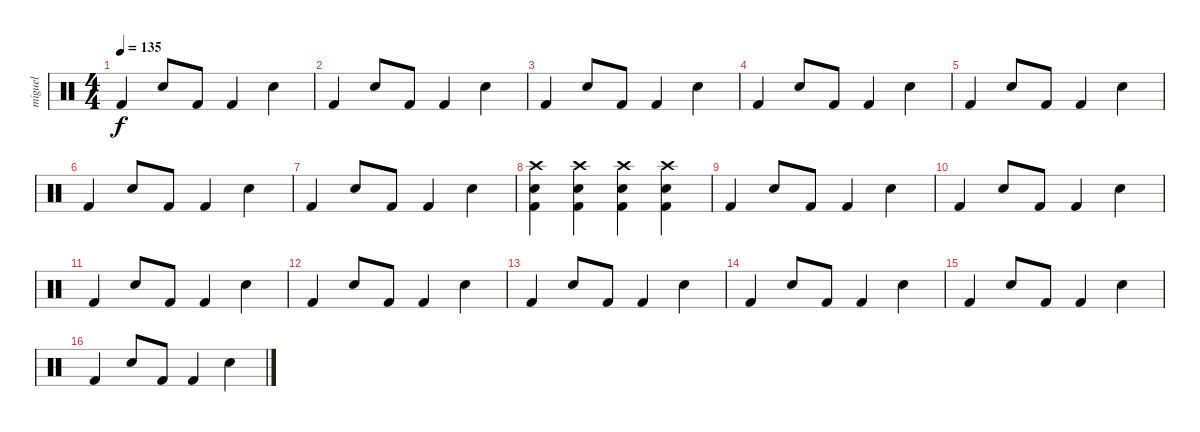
\track ("miguel" "miguel") {instrument percussion}
\staff {score}
\articulation defaults
\ts (4 4)
\tempo 135
\clef neutral
\ks c "Kick (hit) 2".4{dy f} "Snare (hit) 2".8 "Kick (hit) 2".8 "Kick (hit) 2".4 "Snare (hit) 2".4
|
"Kick (hit) 2".4 "Snare (hit) 2".8 "Kick (hit) 2".8 "Kick (hit) 2".4 "Snare (hit) 2".4 |
"Kick (hit) 2".4 "Snare (hit) 2".8 "Kick (hit) 2".8 "Kick (hit) 2".4 "Snare (hit) 2".4 |
"Kick (hit) 2".4 "Snare (hit) 2".8 "Kick (hit) 2".8 "Kick (hit) 2".4 "Snare (hit) 2".4 |
"Kick (hit) 2".4 "Snare (hit) 2".8 "Kick (hit) 2".8 "Kick (hit) 2".4 "Snare (hit) 2".4 |
"Kick (hit) 2".4 "Snare (hit) 2".8 "Kick (hit) 2".8 "Kick (hit) 2".4 "Snare (hit) 2".4 |
"Kick (hit) 2".4 "Snare (hit) 2".8 "Kick (hit) 2".8 "Kick (hit) 2".4 "Snare (hit) 2".4 |
("Kick (hit) 2" "Crash high (hit)" "Snare (hit) 2").4 ("Kick (hit) 2" "Crash high (hit)" "Snare (hit) 2").4 ("Kick (hit) 2" "Crash high (hit)" "Snare (hit) 2").4 ("Kick (hit) 2" "Crash high (hit)" "Snare (hit) 2").4 |
"Kick (hit) 2".4 "Snare (hit) 2".8 "Kick (hit) 2".8 "Kick (hit) 2".4 "Snare (hit) 2".4 |
"Kick (hit) 2".4 "Snare (hit) 2".8 "Kick (hit) 2".8 "Kick (hit) 2".4 "Snare (hit) 2".4 |
"Kick (hit) 2".4 "Snare (hit) 2".8 "Kick (hit) 2".8 "Kick (hit) 2".4 "Snare (hit) 2".4 |
"Kick (hit) 2".4 "Snare (hit) 2".8 "Kick (hit) 2".8 "Kick (hit) 2".4 "Snare (hit) 2".4 |
"Kick (hit) 2".4 "Snare (hit) 2".8 "Kick (hit) 2".8 "Kick (hit) 2".4 "Snare (hit) 2".4 |
"Kick (hit) 2".4 "Snare (hit) 2".8 "Kick (hit) 2".8 "Kick (hit) 2".4 "Snare (hit) 2".4 |
"Kick (hit) 2".4 "Snare (hit) 2".8 "Kick (hit) 2".8 "Kick (hit) 2".4 "Snare (hit) 2".4 |
"Kick (hit) 2".4 "Snare (hit) 2".8 "Kick (hit) 2".8 "Kick (hit) 2".4 "Snare (hit) 2".4
